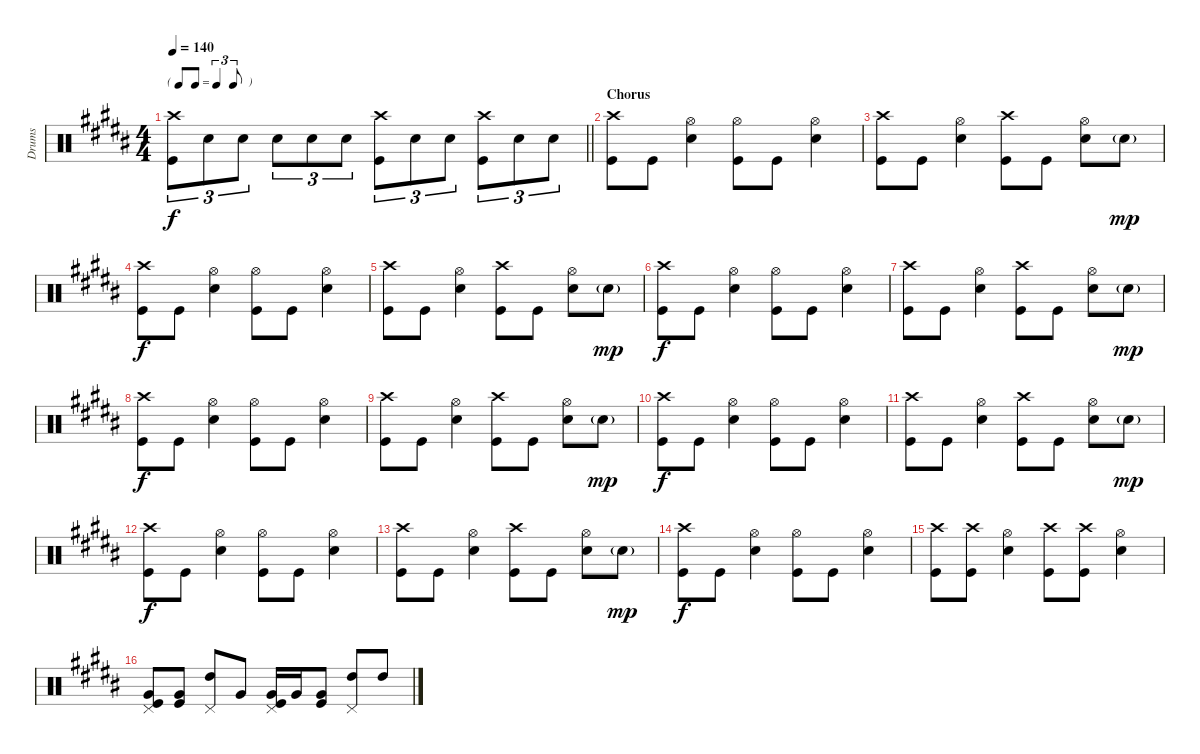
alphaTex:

\track ("Drums" "Drums") {instrument percussion}
\staff {score}
\articulation defaults
\ts (4 4)
\tf triplet8th
\tempo 140
\clef neutral
\barLineRight lightlight
\ks b
("Kick (hit)" "Crash high (hit)").8{tu (3 2) dy f} "Snare (hit) 2".8{tu (3 2)} "Snare (hit) 2".8{tu (3 2)} "Snare (hit) 2".8{tu (3 2)} "Snare (hit) 2".8{tu (3 2)} "Snare (hit) 2".8{tu (3 2)} ("Kick (hit)" "Crash high (hit)").8{tu (3 2)} "Snare (hit) 2".8{tu (3 2)} "Snare (hit) 2".8{tu (3 2)} ("Kick (hit)" "Crash high (hit)").8{tu (3 2)} "Snare (hit) 2".8{tu (3 2)} "Snare (hit) 2".8{tu (3 2)} |
\section ("" "Chorus")
("Kick (hit)" "Crash high (hit)").8 "Kick (hit)".8 ("Snare (hit) 2" "Hi-Hat (open)").4 ("Kick (hit)" "Hi-Hat (open)").8 "Kick (hit)".8 ("Snare (hit) 2" "Hi-Hat (open)").4 |
("Kick (hit)" "Crash high (hit)").8 "Kick (hit)".8 ("Snare (hit) 2" "Hi-Hat (open)").4 ("Kick (hit)" "Crash high (hit)").8 "Kick (hit)".8 ("Snare (hit) 2" "Hi-Hat (open)").8 "Snare (hit) 2"{g}.8{dy mp} |
("Kick (hit)" "Crash high (hit)").8{dy f} "Kick (hit)".8 ("Snare (hit) 2" "Hi-Hat (open)").4 ("Kick (hit)" "Hi-Hat (open)").8 "Kick (hit)".8 ("Snare (hit) 2" "Hi-Hat (open)").4 |
("Kick (hit)" "Crash high (hit)").8 "Kick (hit)".8 ("Snare (hit) 2" "Hi-Hat (open)").4 ("Kick (hit)" "Crash high (hit)").8 "Kick (hit)".8 ("Snare (hit) 2" "Hi-Hat (open)").8 "Snare (hit) 2"{g}.8{dy mp} |
("Kick (hit)" "Crash high (hit)").8{dy f} "Kick (hit)".8 ("Snare (hit) 2" "Hi-Hat (open)").4 ("Kick (hit)" "Hi-Hat (open)").8 "Kick (hit)".8 ("Snare (hit) 2" "Hi-Hat (open)").4 |
("Kick (hit)" "Crash high (hit)").8 "Kick (hit)".8 ("Snare (hit) 2" "Hi-Hat (open)").4 ("Kick (hit)" "Crash high (hit)").8 "Kick (hit)".8 ("Snare (hit) 2" "Hi-Hat (open)").8 "Snare (hit) 2"{g}.8{dy mp} |
("Kick (hit)" "Crash high (hit)").8{dy f} "Kick (hit)".8 ("Snare (hit) 2" "Hi-Hat (open)").4 ("Kick (hit)" "Hi-Hat (open)").8 "Kick (hit)".8 ("Snare (hit) 2" "Hi-Hat (open)").4 |
("Kick (hit)" "Crash high (hit)").8 "Kick (hit)".8 ("Snare (hit) 2" "Hi-Hat (open)").4 ("Kick (hit)" "Crash high (hit)").8 "Kick (hit)".8 ("Snare (hit) 2" "Hi-Hat (open)").8 "Snare (hit) 2"{g}.8{dy mp} |
("Kick (hit)" "Crash high (hit)").8{dy f} "Kick (hit)".8 ("Snare (hit) 2" "Hi-Hat (open)").4 ("Kick (hit)" "Hi-Hat (open)").8 "Kick (hit)".8 ("Snare (hit) 2" "Hi-Hat (open)").4 |
("Kick (hit)" "Crash high (hit)").8 "Kick (hit)".8 ("Snare (hit) 2" "Hi-Hat (open)").4 ("Kick (hit)" "Crash high (hit)").8 "Kick (hit)".8 ("Snare (hit) 2" "Hi-Hat (open)").8 "Snare (hit) 2"{g}.8{dy mp} |
("Kick (hit)" "Crash high (hit)").8{dy f} "Kick (hit)".8 ("Snare (hit) 2" "Hi-Hat (open)").4 ("Kick (hit)" "Hi-Hat (open)").8 "Kick (hit)".8 ("Snare (hit) 2" "Hi-Hat (open)").4 |
("Kick (hit)" "Crash high (hit)").8 "Kick (hit)".8 ("Snare (hit) 2" "Hi-Hat (open)").4 ("Kick (hit)" "Crash high (hit)").8 "Kick (hit)".8 ("Snare (hit) 2" "Hi-Hat (open)").8 "Snare (hit) 2"{g}.8{dy mp} |
("Kick (hit)" "Crash high (hit)").8{dy f} "Kick (hit)".8 ("Snare (hit) 2" "Hi-Hat (open)").4 ("Kick (hit)" "Hi-Hat (open)").8 "Kick (hit)".8 ("Snare (hit) 2" "Hi-Hat (open)").4 |
("Kick (hit)" "Crash high (hit)").8 ("Kick (hit)" "Crash high (hit)").8 ("Snare (hit) 2" "Hi-Hat (open)").4 ("Kick (hit)" "Crash high (hit)").8 ("Kick (hit)" "Crash high (hit)").8 ("Snare (hit) 2" "Hi-Hat (open)").4 |
("Kick (hit)" "Very Low Tom (hit)" "Pedal Hi-Hat (hit)").8 ("Kick (hit)" "Very Low Tom (hit)").8 ("High Tom (hit)" "Pedal Hi-Hat (hit)").8 "Very Low Tom (hit)".8 ("Very Low Tom (hit)" "Kick (hit)" "Pedal Hi-Hat (hit)").16 "Very Low Tom (hit)".16 ("Very Low Tom (hit)" "Kick (hit)").8 ("High Tom (hit)" "Pedal Hi-Hat (hit)").8 "High Tom (hit)".8
